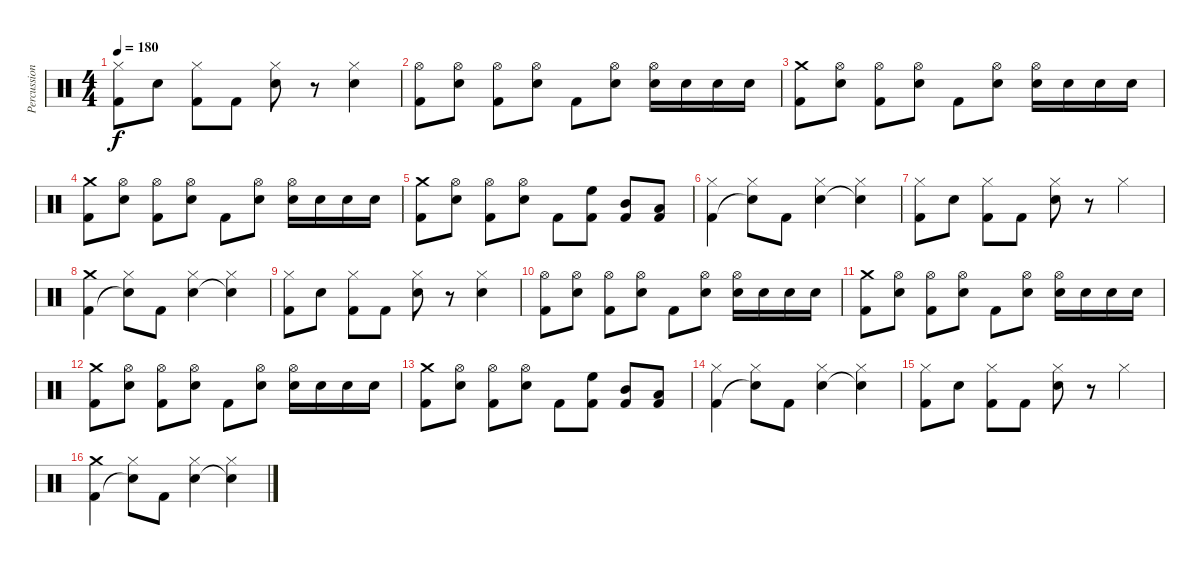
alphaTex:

\track ("Percussion" "Percussion") {instrument percussion}
\staff {score}
\articulation defaults
\ts (4 4)
\tempo 180
\clef neutral
\ks c
("Hi-Hat (closed)" "Kick (hit) 2").8{dy f} "Snare (hit) 2".8 ("Hi-Hat (closed)" "Kick (hit) 2").8 "Kick (hit) 2".8 ("Hi-Hat (closed)" "Snare (hit) 2").8 r.8 ("Hi-Hat (closed)" "Snare (hit) 2").4 |
("Hi-Hat (open)" "Kick (hit) 2").8 ("Hi-Hat (open)" "Snare (hit) 2").8 ("Hi-Hat (open)" "Kick (hit) 2").8 ("Hi-Hat (open)" "Snare (hit) 2").8 "Kick (hit) 2".8 ("Hi-Hat (open)" "Snare (hit) 2").8 ("Hi-Hat (open)" "Snare (hit) 2").16 "Snare (hit) 2".16 "Snare (hit) 2".16 "Snare (hit) 2".16 |
("Crash medium (hit)" "Kick (hit) 2").8 ("Hi-Hat (open)" "Snare (hit) 2").8 ("Hi-Hat (open)" "Kick (hit) 2").8 ("Hi-Hat (open)" "Snare (hit) 2").8 "Kick (hit) 2".8 ("Hi-Hat (open)" "Snare (hit) 2").8 ("Hi-Hat (open)" "Snare (hit) 2").16 "Snare (hit) 2".16 "Snare (hit) 2".16 "Snare (hit) 2".16 |
("Crash medium (hit)" "Kick (hit) 2").8 ("Hi-Hat (open)" "Snare (hit) 2").8 ("Hi-Hat (open)" "Kick (hit) 2").8 ("Hi-Hat (open)" "Snare (hit) 2").8 "Kick (hit) 2".8 ("Hi-Hat (open)" "Snare (hit) 2").8 ("Hi-Hat (open)" "Snare (hit) 2").16 "Snare (hit) 2".16 "Snare (hit) 2".16 "Snare (hit) 2".16 |
("Crash medium (hit)" "Kick (hit) 2").8 ("Hi-Hat (open)" "Snare (hit) 2").8 ("Hi-Hat (open)" "Kick (hit) 2").8 ("Hi-Hat (open)" "Snare (hit) 2").8 "Kick (hit) 2".8 ("High Floor Tom (hit)" "Kick (hit) 2").8 ("Mid Tom (hit)" "Kick (hit) 2").8 ("Low Tom (hit)" "Kick (hit) 2").8 |
("Hi-Hat (closed)" "Kick (hit) 2").4 ("Hi-Hat (closed)" "Snare (hit)"{t}).8 "Kick (hit) 2".8 ("Hi-Hat (closed)" "Snare (hit) 2").4 ("Hi-Hat (closed)" "Snare (hit)"{t}).4 |
("Hi-Hat (closed)" "Kick (hit) 2").8 "Snare (hit) 2".8 ("Hi-Hat (closed)" "Kick (hit) 2").8 "Kick (hit) 2".8 ("Hi-Hat (closed)" "Snare (hit) 2").8 r.8 "Hi-Hat (closed)".4 |
("Crash medium (hit)" "Kick (hit) 2").4 ("Hi-Hat (closed)" "Snare (hit)"{t}).8 "Kick (hit) 2".8 ("Hi-Hat (closed)" "Snare (hit) 2").4 ("Hi-Hat (closed)" "Snare (hit)"{t}).4 |
("Hi-Hat (closed)" "Kick (hit) 2").8 "Snare (hit) 2".8 ("Hi-Hat (closed)" "Kick (hit) 2").8 "Kick (hit) 2".8 ("Hi-Hat (closed)" "Snare (hit) 2").8 r.8 ("Hi-Hat (closed)" "Snare (hit) 2").4 |
("Hi-Hat (open)" "Kick (hit) 2").8 ("Hi-Hat (open)" "Snare (hit) 2").8 ("Hi-Hat (open)" "Kick (hit) 2").8 ("Hi-Hat (open)" "Snare (hit) 2").8 "Kick (hit) 2".8 ("Hi-Hat (open)" "Snare (hit) 2").8 ("Hi-Hat (open)" "Snare (hit) 2").16 "Snare (hit) 2".16 "Snare (hit) 2".16 "Snare (hit) 2".16 |
("Crash medium (hit)" "Kick (hit) 2").8 ("Hi-Hat (open)" "Snare (hit) 2").8 ("Hi-Hat (open)" "Kick (hit) 2").8 ("Hi-Hat (open)" "Snare (hit) 2").8 "Kick (hit) 2".8 ("Hi-Hat (open)" "Snare (hit) 2").8 ("Hi-Hat (open)" "Snare (hit) 2").16 "Snare (hit) 2".16 "Snare (hit) 2".16 "Snare (hit) 2".16 |
("Crash medium (hit)" "Kick (hit) 2").8 ("Hi-Hat (open)" "Snare (hit) 2").8 ("Hi-Hat (open)" "Kick (hit) 2").8 ("Hi-Hat (open)" "Snare (hit) 2").8 "Kick (hit) 2".8 ("Hi-Hat (open)" "Snare (hit) 2").8 ("Hi-Hat (open)" "Snare (hit) 2").16 "Snare (hit) 2".16 "Snare (hit) 2".16 "Snare (hit) 2".16 |
("Crash medium (hit)" "Kick (hit) 2").8 ("Hi-Hat (open)" "Snare (hit) 2").8 ("Hi-Hat (open)" "Kick (hit) 2").8 ("Hi-Hat (open)" "Snare (hit) 2").8 "Kick (hit) 2".8 ("High Floor Tom (hit)" "Kick (hit) 2").8 ("Mid Tom (hit)" "Kick (hit) 2").8 ("Low Tom (hit)" "Kick (hit) 2").8 |
("Hi-Hat (closed)" "Kick (hit) 2").4 ("Hi-Hat (closed)" "Snare (hit)"{t}).8 "Kick (hit) 2".8 ("Hi-Hat (closed)" "Snare (hit) 2").4 ("Hi-Hat (closed)" "Snare (hit)"{t}).4 |
("Hi-Hat (closed)" "Kick (hit) 2").8 "Snare (hit) 2".8 ("Hi-Hat (closed)" "Kick (hit) 2").8 "Kick (hit) 2".8 ("Hi-Hat (closed)" "Snare (hit) 2").8 r.8 "Hi-Hat (closed)".4 |
("Crash medium (hit)" "Kick (hit) 2").4 ("Hi-Hat (closed)" "Snare (hit)"{t}).8 "Kick (hit) 2".8 ("Hi-Hat (closed)" "Snare (hit) 2").4 ("Hi-Hat (closed)" "Snare (hit)"{t}).4
